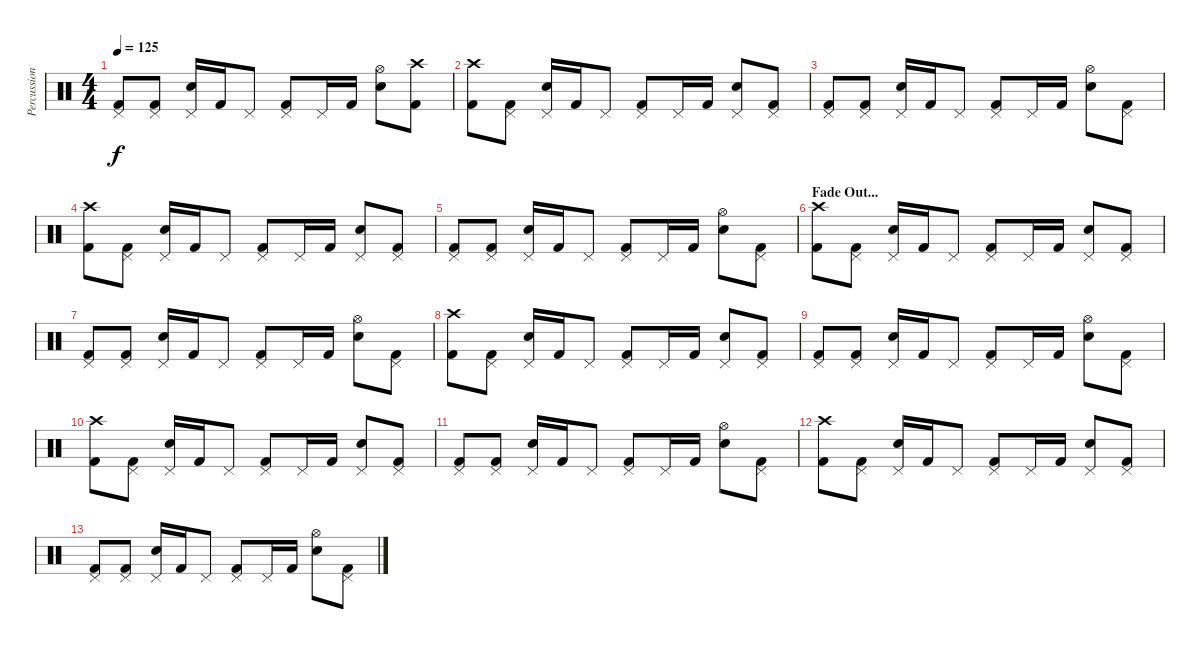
\track ("Percussion" "Percussion") {instrument percussion}
\staff {score}
\articulation defaults
\ts (4 4)
\tempo 125
\clef neutral
\ks c
("Pedal Hi-Hat (hit)" "Kick (hit) 2").8{dy f} ("Pedal Hi-Hat (hit)" "Kick (hit) 2").8 ("Pedal Hi-Hat (hit)" "Electric Snare (hit)").16 "Kick (hit) 2".16 "Pedal Hi-Hat (hit)".8 ("Pedal Hi-Hat (hit)" "Kick (hit) 2").8 "Pedal Hi-Hat (hit)".16 "Kick (hit) 2".16 ("Hi-Hat (open)" "Electric Snare (hit)").8 ("Crash high (hit)" "Kick (hit) 2").8 |
("Crash high (hit)" "Kick (hit) 2").8 ("Pedal Hi-Hat (hit)" "Kick (hit) 2").8 ("Pedal Hi-Hat (hit)" "Electric Snare (hit)").16 "Kick (hit) 2".16 "Pedal Hi-Hat (hit)".8 ("Pedal Hi-Hat (hit)" "Kick (hit) 2").8 "Pedal Hi-Hat (hit)".16 "Kick (hit) 2".16 ("Pedal Hi-Hat (hit)" "Electric Snare (hit)").8 ("Pedal Hi-Hat (hit)" "Kick (hit) 2").8 |
("Pedal Hi-Hat (hit)" "Kick (hit) 2").8 ("Pedal Hi-Hat (hit)" "Kick (hit) 2").8 ("Pedal Hi-Hat (hit)" "Electric Snare (hit)").16 "Kick (hit) 2".16 "Pedal Hi-Hat (hit)".8 ("Pedal Hi-Hat (hit)" "Kick (hit) 2").8 "Pedal Hi-Hat (hit)".16 "Kick (hit) 2".16 ("Hi-Hat (open)" "Electric Snare (hit)").8 ("Pedal Hi-Hat (hit)" "Kick (hit) 2").8 |
("Crash high (hit)" "Kick (hit) 2").8 ("Pedal Hi-Hat (hit)" "Kick (hit) 2").8 ("Pedal Hi-Hat (hit)" "Electric Snare (hit)").16 "Kick (hit) 2".16 "Pedal Hi-Hat (hit)".8 ("Pedal Hi-Hat (hit)" "Kick (hit) 2").8 "Pedal Hi-Hat (hit)".16 "Kick (hit) 2".16 ("Pedal Hi-Hat (hit)" "Electric Snare (hit)").8 ("Pedal Hi-Hat (hit)" "Kick (hit) 2").8 |
("Pedal Hi-Hat (hit)" "Kick (hit) 2").8 ("Pedal Hi-Hat (hit)" "Kick (hit) 2").8 ("Pedal Hi-Hat (hit)" "Electric Snare (hit)").16 "Kick (hit) 2".16 "Pedal Hi-Hat (hit)".8 ("Pedal Hi-Hat (hit)" "Kick (hit) 2").8 "Pedal Hi-Hat (hit)".16 "Kick (hit) 2".16 ("Hi-Hat (open)" "Electric Snare (hit)").8 ("Pedal Hi-Hat (hit)" "Kick (hit) 2").8 |
\section ("" "Fade Out...")
("Crash high (hit)" "Kick (hit) 2").8 ("Pedal Hi-Hat (hit)" "Kick (hit) 2").8 ("Pedal Hi-Hat (hit)" "Electric Snare (hit)").16 "Kick (hit) 2".16 "Pedal Hi-Hat (hit)".8 ("Pedal Hi-Hat (hit)" "Kick (hit) 2").8 "Pedal Hi-Hat (hit)".16 "Kick (hit) 2".16 ("Pedal Hi-Hat (hit)" "Electric Snare (hit)").8 ("Pedal Hi-Hat (hit)" "Kick (hit) 2").8 |
("Pedal Hi-Hat (hit)" "Kick (hit) 2").8 ("Pedal Hi-Hat (hit)" "Kick (hit) 2").8 ("Pedal Hi-Hat (hit)" "Electric Snare (hit)").16 "Kick (hit) 2".16 "Pedal Hi-Hat (hit)".8 ("Pedal Hi-Hat (hit)" "Kick (hit) 2").8 "Pedal Hi-Hat (hit)".16 "Kick (hit) 2".16 ("Hi-Hat (open)" "Electric Snare (hit)").8 ("Pedal Hi-Hat (hit)" "Kick (hit) 2").8 |
("Crash high (hit)" "Kick (hit) 2").8 ("Pedal Hi-Hat (hit)" "Kick (hit) 2").8 ("Pedal Hi-Hat (hit)" "Electric Snare (hit)").16 "Kick (hit) 2".16 "Pedal Hi-Hat (hit)".8 ("Pedal Hi-Hat (hit)" "Kick (hit) 2").8 "Pedal Hi-Hat (hit)".16 "Kick (hit) 2".16 ("Pedal Hi-Hat (hit)" "Electric Snare (hit)").8 ("Pedal Hi-Hat (hit)" "Kick (hit) 2").8 |
("Pedal Hi-Hat (hit)" "Kick (hit) 2").8 ("Pedal Hi-Hat (hit)" "Kick (hit) 2").8 ("Pedal Hi-Hat (hit)" "Electric Snare (hit)").16 "Kick (hit) 2".16 "Pedal Hi-Hat (hit)".8 ("Pedal Hi-Hat (hit)" "Kick (hit) 2").8 "Pedal Hi-Hat (hit)".16 "Kick (hit) 2".16 ("Hi-Hat (open)" "Electric Snare (hit)").8 ("Pedal Hi-Hat (hit)" "Kick (hit) 2").8 |
("Crash high (hit)" "Kick (hit) 2").8 ("Pedal Hi-Hat (hit)" "Kick (hit) 2").8 ("Pedal Hi-Hat (hit)" "Electric Snare (hit)").16 "Kick (hit) 2".16 "Pedal Hi-Hat (hit)".8 ("Pedal Hi-Hat (hit)" "Kick (hit) 2").8 "Pedal Hi-Hat (hit)".16 "Kick (hit) 2".16 ("Pedal Hi-Hat (hit)" "Electric Snare (hit)").8 ("Pedal Hi-Hat (hit)" "Kick (hit) 2").8 |
("Pedal Hi-Hat (hit)" "Kick (hit) 2").8 ("Pedal Hi-Hat (hit)" "Kick (hit) 2").8 ("Pedal Hi-Hat (hit)" "Electric Snare (hit)").16 "Kick (hit) 2".16 "Pedal Hi-Hat (hit)".8 ("Pedal Hi-Hat (hit)" "Kick (hit) 2").8 "Pedal Hi-Hat (hit)".16 "Kick (hit) 2".16 ("Hi-Hat (open)" "Electric Snare (hit)").8 ("Pedal Hi-Hat (hit)" "Kick (hit) 2").8 |
("Crash high (hit)" "Kick (hit) 2").8 ("Pedal Hi-Hat (hit)" "Kick (hit) 2").8 ("Pedal Hi-Hat (hit)" "Electric Snare (hit)").16 "Kick (hit) 2".16 "Pedal Hi-Hat (hit)".8 ("Pedal Hi-Hat (hit)" "Kick (hit) 2").8 "Pedal Hi-Hat (hit)".16 "Kick (hit) 2".16 ("Pedal Hi-Hat (hit)" "Electric Snare (hit)").8 ("Pedal Hi-Hat (hit)" "Kick (hit) 2").8 |
("Pedal Hi-Hat (hit)" "Kick (hit) 2").8 ("Pedal Hi-Hat (hit)" "Kick (hit) 2").8 ("Pedal Hi-Hat (hit)" "Electric Snare (hit)").16 "Kick (hit) 2".16 "Pedal Hi-Hat (hit)".8 ("Pedal Hi-Hat (hit)" "Kick (hit) 2").8 "Pedal Hi-Hat (hit)".16 "Kick (hit) 2".16 ("Hi-Hat (open)" "Electric Snare (hit)").8 ("Pedal Hi-Hat (hit)" "Kick (hit) 2").8
